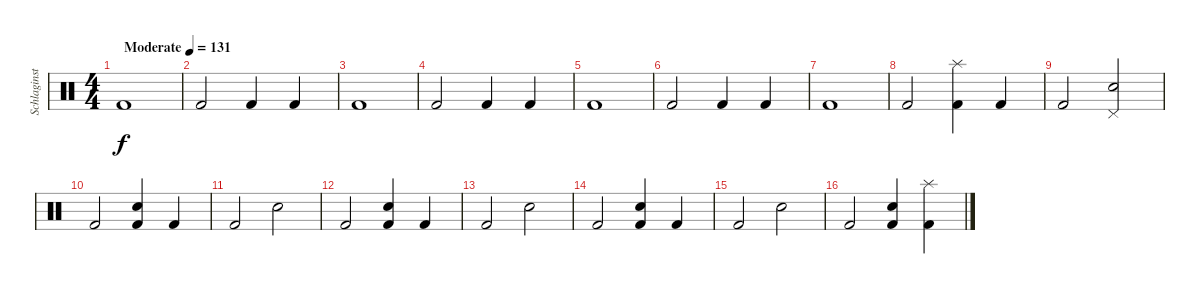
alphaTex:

\track ("Schlaginstrumente - Auswahl" "Schlaginst") {instrument percussion}
\staff {score}
\articulation defaults
\ts (4 4)
\tempo (131 "Moderate")
\clef neutral
\ks c "Kick (hit) 2".1{dy f}
|
"Kick (hit) 2".2 "Kick (hit) 2".4 "Kick (hit) 2".4 |
"Kick (hit) 2".1 |
"Kick (hit) 2".2 "Kick (hit) 2".4 "Kick (hit) 2".4 |
"Kick (hit) 2".1 |
"Kick (hit) 2".2 "Kick (hit) 2".4 "Kick (hit) 2".4 |
"Kick (hit) 2".1 |
"Kick (hit) 2".2 ("Splash (hit)" "Kick (hit) 2").4 "Kick (hit) 2".4 |
"Kick (hit) 2".2 ("Pedal Hi-Hat (hit)" "Snare (hit) 2").2 |
"Kick (hit) 2".2 ("Kick (hit) 2" "Snare (hit) 2").4 "Kick (hit) 2".4 |
"Kick (hit) 2".2 "Snare (hit) 2".2 |
"Kick (hit) 2".2 ("Kick (hit) 2" "Snare (hit) 2").4 "Kick (hit) 2".4 |
"Kick (hit) 2".2 "Snare (hit) 2".2 |
"Kick (hit) 2".2 ("Kick (hit) 2" "Snare (hit) 2").4 "Kick (hit) 2".4 |
"Kick (hit) 2".2 "Snare (hit) 2".2 |
"Kick (hit) 2".2 ("Kick (hit) 2" "Snare (hit) 2").4 ("Splash (hit)" "Kick (hit) 2").4
